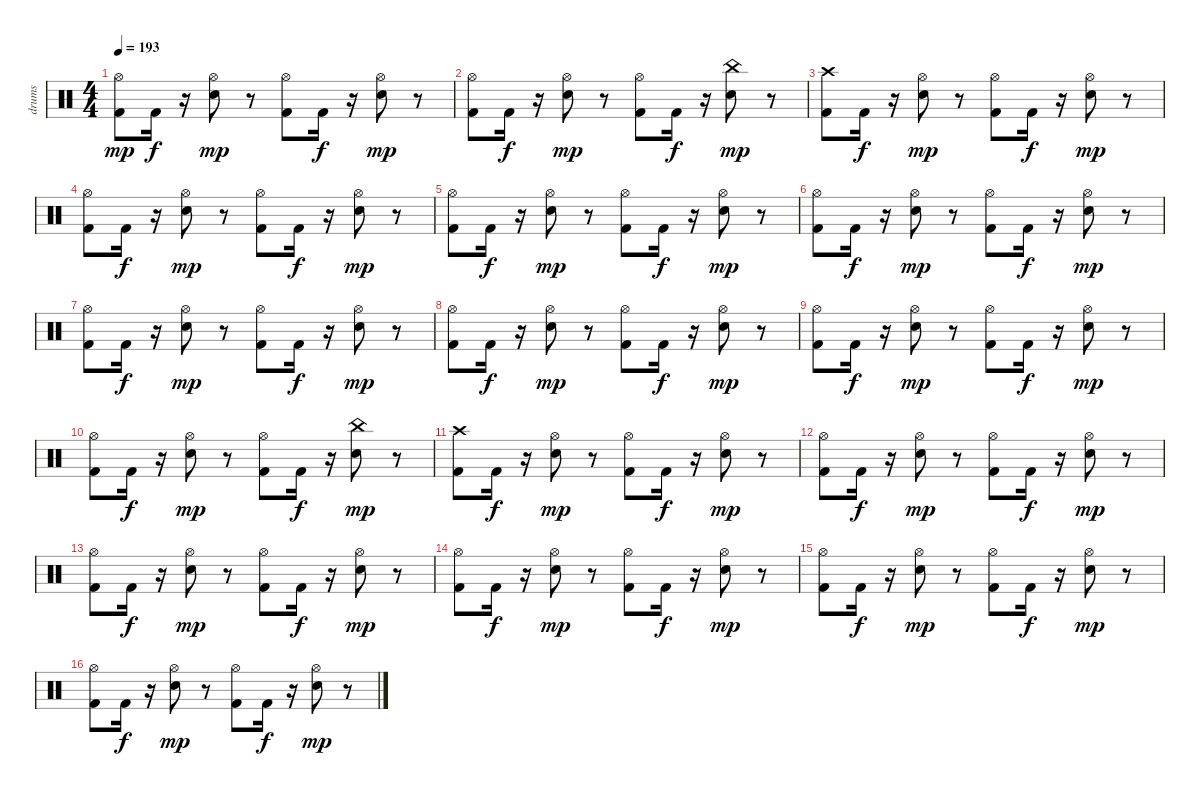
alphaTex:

\track ("drums" "drums") {instrument percussion}
\staff {score}
\articulation defaults
\ts (4 4)
\tempo 193
\clef neutral
\ks c
("Kick (hit) 2" "Hi-Hat (open)").8{dy mp} "Kick (hit) 2".16{dy f} r.16 ("Snare (hit) 2" "Hi-Hat (open)").8{dy mp} r.8 ("Kick (hit) 2" "Hi-Hat (open)").8 "Kick (hit) 2".16{dy f} r.16 ("Snare (hit) 2" "Hi-Hat (open)").8{dy mp} r.8 |
("Kick (hit) 2" "Hi-Hat (open)").8 "Kick (hit) 2".16{dy f} r.16 ("Snare (hit) 2" "Hi-Hat (open)").8{dy mp} r.8 ("Kick (hit) 2" "Hi-Hat (open)").8 "Kick (hit) 2".16{dy f} r.16 ("Snare (hit) 2" "China (hit)").8{dy mp} r.8 |
("Kick (hit) 2" "Crash high (hit)").8 "Kick (hit) 2".16{dy f} r.16 ("Snare (hit) 2" "Hi-Hat (open)").8{dy mp} r.8 ("Kick (hit) 2" "Hi-Hat (open)").8 "Kick (hit) 2".16{dy f} r.16 ("Snare (hit) 2" "Hi-Hat (open)").8{dy mp} r.8 |
("Kick (hit) 2" "Hi-Hat (open)").8 "Kick (hit) 2".16{dy f} r.16 ("Snare (hit) 2" "Hi-Hat (open)").8{dy mp} r.8 ("Kick (hit) 2" "Hi-Hat (open)").8 "Kick (hit) 2".16{dy f} r.16 ("Snare (hit) 2" "Hi-Hat (open)").8{dy mp} r.8 |
("Kick (hit) 2" "Hi-Hat (open)").8 "Kick (hit) 2".16{dy f} r.16 ("Snare (hit) 2" "Hi-Hat (open)").8{dy mp} r.8 ("Kick (hit) 2" "Hi-Hat (open)").8 "Kick (hit) 2".16{dy f} r.16 ("Snare (hit) 2" "Hi-Hat (open)").8{dy mp} r.8 |
("Kick (hit) 2" "Hi-Hat (open)").8 "Kick (hit) 2".16{dy f} r.16 ("Snare (hit) 2" "Hi-Hat (open)").8{dy mp} r.8 ("Kick (hit) 2" "Hi-Hat (open)").8 "Kick (hit) 2".16{dy f} r.16 ("Snare (hit) 2" "Hi-Hat (open)").8{dy mp} r.8 |
("Kick (hit) 2" "Hi-Hat (open)").8 "Kick (hit) 2".16{dy f} r.16 ("Snare (hit) 2" "Hi-Hat (open)").8{dy mp} r.8 ("Kick (hit) 2" "Hi-Hat (open)").8 "Kick (hit) 2".16{dy f} r.16 ("Snare (hit) 2" "Hi-Hat (open)").8{dy mp} r.8 |
("Kick (hit) 2" "Hi-Hat (open)").8 "Kick (hit) 2".16{dy f} r.16 ("Snare (hit) 2" "Hi-Hat (open)").8{dy mp} r.8 ("Kick (hit) 2" "Hi-Hat (open)").8 "Kick (hit) 2".16{dy f} r.16 ("Snare (hit) 2" "Hi-Hat (open)").8{dy mp} r.8 |
("Kick (hit) 2" "Hi-Hat (open)").8 "Kick (hit) 2".16{dy f} r.16 ("Snare (hit) 2" "Hi-Hat (open)").8{dy mp} r.8 ("Kick (hit) 2" "Hi-Hat (open)").8 "Kick (hit) 2".16{dy f} r.16 ("Snare (hit) 2" "Hi-Hat (open)").8{dy mp} r.8 |
("Kick (hit) 2" "Hi-Hat (open)").8 "Kick (hit) 2".16{dy f} r.16 ("Snare (hit) 2" "Hi-Hat (open)").8{dy mp} r.8 ("Kick (hit) 2" "Hi-Hat (open)").8 "Kick (hit) 2".16{dy f} r.16 ("Snare (hit) 2" "China (hit)").8{dy mp} r.8 |
("Kick (hit) 2" "Crash high (hit)").8 "Kick (hit) 2".16{dy f} r.16 ("Snare (hit) 2" "Hi-Hat (open)").8{dy mp} r.8 ("Kick (hit) 2" "Hi-Hat (open)").8 "Kick (hit) 2".16{dy f} r.16 ("Snare (hit) 2" "Hi-Hat (open)").8{dy mp} r.8 |
("Kick (hit) 2" "Hi-Hat (open)").8 "Kick (hit) 2".16{dy f} r.16 ("Snare (hit) 2" "Hi-Hat (open)").8{dy mp} r.8 ("Kick (hit) 2" "Hi-Hat (open)").8 "Kick (hit) 2".16{dy f} r.16 ("Snare (hit) 2" "Hi-Hat (open)").8{dy mp} r.8 |
("Kick (hit) 2" "Hi-Hat (open)").8 "Kick (hit) 2".16{dy f} r.16 ("Snare (hit) 2" "Hi-Hat (open)").8{dy mp} r.8 ("Kick (hit) 2" "Hi-Hat (open)").8 "Kick (hit) 2".16{dy f} r.16 ("Snare (hit) 2" "Hi-Hat (open)").8{dy mp} r.8 |
("Kick (hit) 2" "Hi-Hat (open)").8 "Kick (hit) 2".16{dy f} r.16 ("Snare (hit) 2" "Hi-Hat (open)").8{dy mp} r.8 ("Kick (hit) 2" "Hi-Hat (open)").8 "Kick (hit) 2".16{dy f} r.16 ("Snare (hit) 2" "Hi-Hat (open)").8{dy mp} r.8 |
("Kick (hit) 2" "Hi-Hat (open)").8 "Kick (hit) 2".16{dy f} r.16 ("Snare (hit) 2" "Hi-Hat (open)").8{dy mp} r.8 ("Kick (hit) 2" "Hi-Hat (open)").8 "Kick (hit) 2".16{dy f} r.16 ("Snare (hit) 2" "Hi-Hat (open)").8{dy mp} r.8 |
("Kick (hit) 2" "Hi-Hat (open)").8 "Kick (hit) 2".16{dy f} r.16 ("Snare (hit) 2" "Hi-Hat (open)").8{dy mp} r.8 ("Kick (hit) 2" "Hi-Hat (open)").8 "Kick (hit) 2".16{dy f} r.16 ("Snare (hit) 2" "Hi-Hat (open)").8{dy mp} r.8
